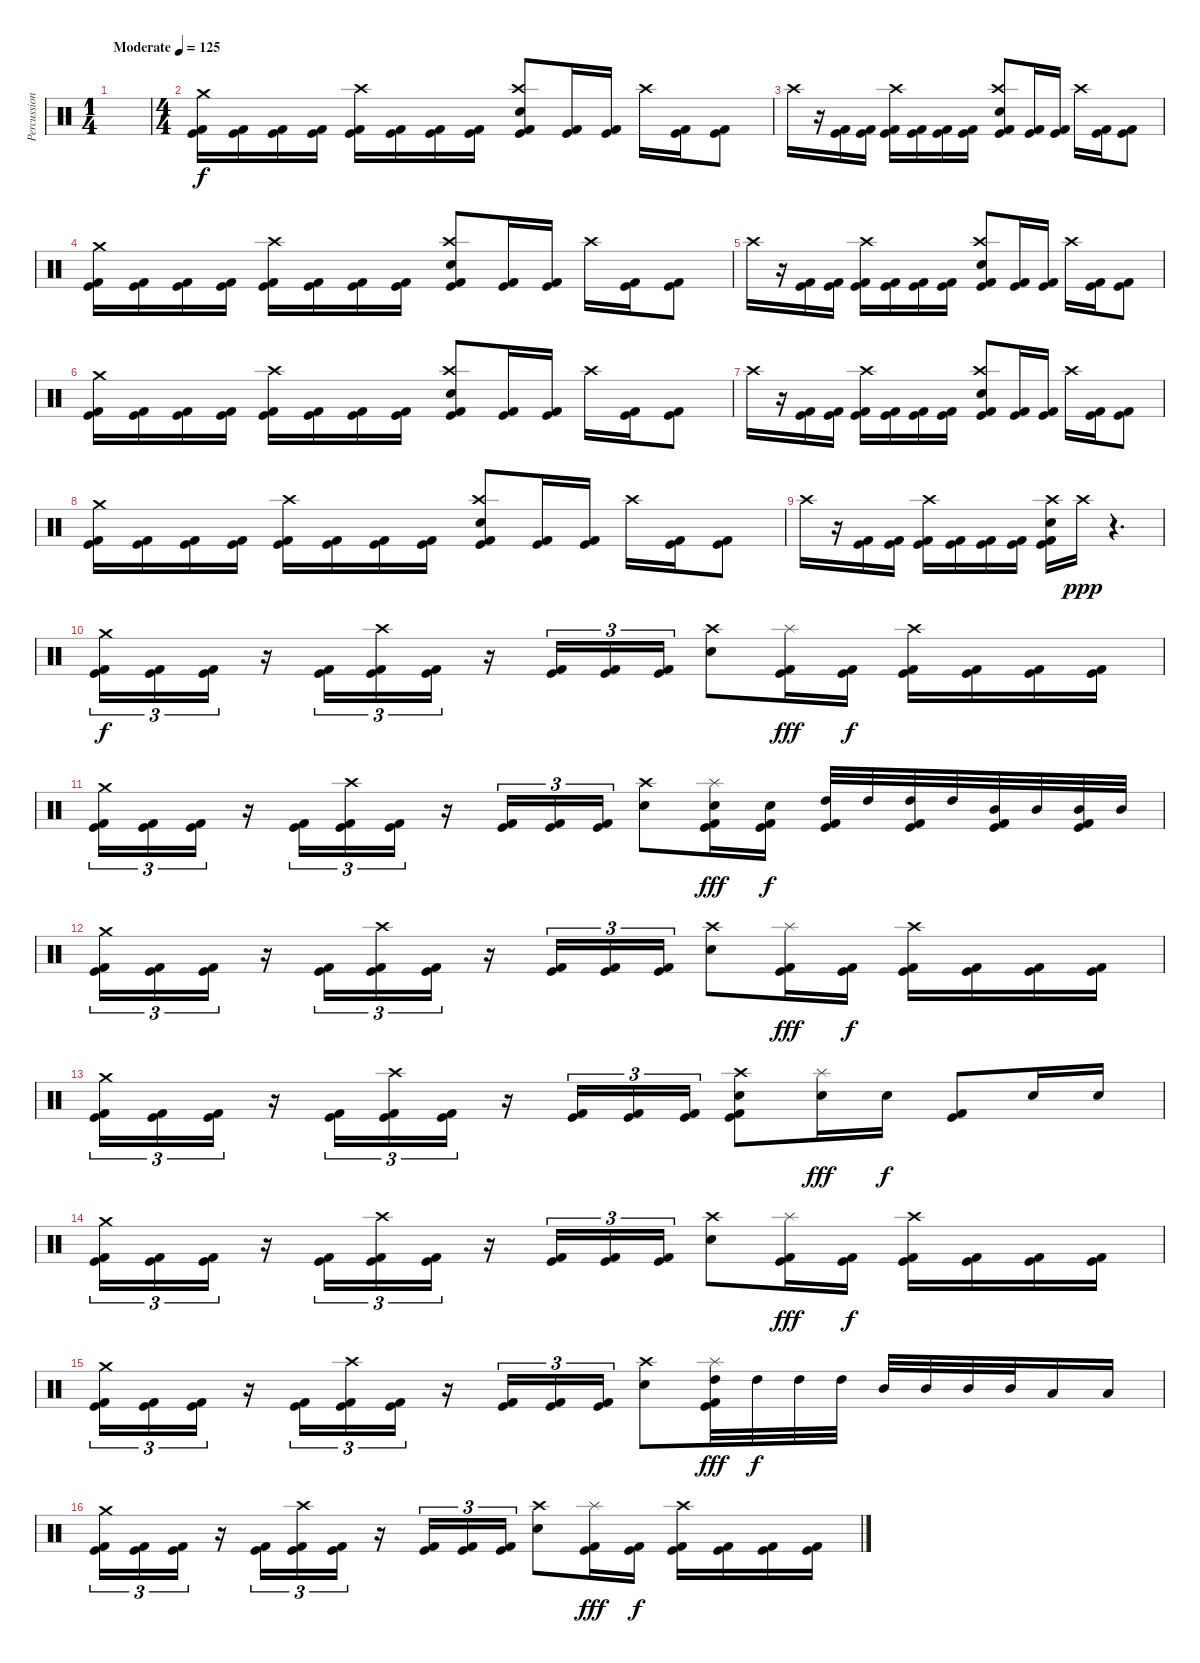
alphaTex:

\track ("Percussion" "Percussion") {instrument percussion}
\staff {score}
\articulation defaults
\ts (1 4)
\tempo (125 "Moderate")
\clef neutral
\ks c
|
\ts (4 4)
("Crash medium (hit)" "Kick (hit)" "Kick (hit) 2").16 ("Kick (hit)" "Kick (hit) 2").16 ("Kick (hit)" "Kick (hit) 2").16 ("Kick (hit)" "Kick (hit) 2").16 ("Crash high (hit)" "Kick (hit)" "Kick (hit) 2").16 ("Kick (hit)" "Kick (hit) 2").16 ("Kick (hit)" "Kick (hit) 2").16 ("Kick (hit)" "Kick (hit) 2").16 ("Crash high (hit)" "Snare (hit) 2" "Kick (hit)" "Kick (hit) 2").8 ("Kick (hit)" "Kick (hit) 2").16 ("Kick (hit)" "Kick (hit) 2").16 "Crash high (hit)".16 ("Kick (hit)" "Kick (hit) 2").16 ("Kick (hit)" "Kick (hit) 2").8 |
"Crash high (hit)".16 r.16 ("Kick (hit)" "Kick (hit) 2").16 ("Kick (hit)" "Kick (hit) 2").16 ("Crash high (hit)" "Kick (hit)" "Kick (hit) 2").16 ("Kick (hit)" "Kick (hit) 2").16 ("Kick (hit)" "Kick (hit) 2").16 ("Kick (hit)" "Kick (hit) 2").16 ("Crash high (hit)" "Snare (hit) 2" "Kick (hit)" "Kick (hit) 2").8 ("Kick (hit)" "Kick (hit) 2").16 ("Kick (hit)" "Kick (hit) 2").16 "Crash high (hit)".16 ("Kick (hit)" "Kick (hit) 2").16 ("Kick (hit)" "Kick (hit) 2").8 |
("Crash medium (hit)" "Kick (hit)" "Kick (hit) 2").16 ("Kick (hit)" "Kick (hit) 2").16 ("Kick (hit)" "Kick (hit) 2").16 ("Kick (hit)" "Kick (hit) 2").16 ("Crash high (hit)" "Kick (hit)" "Kick (hit) 2").16 ("Kick (hit)" "Kick (hit) 2").16 ("Kick (hit)" "Kick (hit) 2").16 ("Kick (hit)" "Kick (hit) 2").16 ("Crash high (hit)" "Snare (hit) 2" "Kick (hit)" "Kick (hit) 2").8 ("Kick (hit)" "Kick (hit) 2").16 ("Kick (hit)" "Kick (hit) 2").16 "Crash high (hit)".16 ("Kick (hit)" "Kick (hit) 2").16 ("Kick (hit)" "Kick (hit) 2").8 |
"Crash high (hit)".16 r.16 ("Kick (hit)" "Kick (hit) 2").16 ("Kick (hit)" "Kick (hit) 2").16 ("Crash high (hit)" "Kick (hit)" "Kick (hit) 2").16 ("Kick (hit)" "Kick (hit) 2").16 ("Kick (hit)" "Kick (hit) 2").16 ("Kick (hit)" "Kick (hit) 2").16 ("Crash high (hit)" "Snare (hit) 2" "Kick (hit)" "Kick (hit) 2").8 ("Kick (hit)" "Kick (hit) 2").16 ("Kick (hit)" "Kick (hit) 2").16 "Crash high (hit)".16 ("Kick (hit)" "Kick (hit) 2").16 ("Kick (hit)" "Kick (hit) 2").8 |
("Crash medium (hit)" "Kick (hit)" "Kick (hit) 2").16 ("Kick (hit)" "Kick (hit) 2").16 ("Kick (hit)" "Kick (hit) 2").16 ("Kick (hit)" "Kick (hit) 2").16 ("Crash high (hit)" "Kick (hit)" "Kick (hit) 2").16 ("Kick (hit)" "Kick (hit) 2").16 ("Kick (hit)" "Kick (hit) 2").16 ("Kick (hit)" "Kick (hit) 2").16 ("Crash high (hit)" "Snare (hit) 2" "Kick (hit)" "Kick (hit) 2").8 ("Kick (hit)" "Kick (hit) 2").16 ("Kick (hit)" "Kick (hit) 2").16 "Crash high (hit)".16 ("Kick (hit)" "Kick (hit) 2").16 ("Kick (hit)" "Kick (hit) 2").8 |
"Crash high (hit)".16 r.16 ("Kick (hit)" "Kick (hit) 2").16 ("Kick (hit)" "Kick (hit) 2").16 ("Crash high (hit)" "Kick (hit)" "Kick (hit) 2").16 ("Kick (hit)" "Kick (hit) 2").16 ("Kick (hit)" "Kick (hit) 2").16 ("Kick (hit)" "Kick (hit) 2").16 ("Crash high (hit)" "Snare (hit) 2" "Kick (hit)" "Kick (hit) 2").8 ("Kick (hit)" "Kick (hit) 2").16 ("Kick (hit)" "Kick (hit) 2").16 "Crash high (hit)".16 ("Kick (hit)" "Kick (hit) 2").16 ("Kick (hit)" "Kick (hit) 2").8 |
("Crash medium (hit)" "Kick (hit)" "Kick (hit) 2").16 ("Kick (hit)" "Kick (hit) 2").16 ("Kick (hit)" "Kick (hit) 2").16 ("Kick (hit)" "Kick (hit) 2").16 ("Crash high (hit)" "Kick (hit)" "Kick (hit) 2").16 ("Kick (hit)" "Kick (hit) 2").16 ("Kick (hit)" "Kick (hit) 2").16 ("Kick (hit)" "Kick (hit) 2").16 ("Crash high (hit)" "Snare (hit) 2" "Kick (hit)" "Kick (hit) 2").8 ("Kick (hit)" "Kick (hit) 2").16 ("Kick (hit)" "Kick (hit) 2").16 "Crash high (hit)".16 ("Kick (hit)" "Kick (hit) 2").16 ("Kick (hit)" "Kick (hit) 2").8 |
"Crash high (hit)".16 r.16 ("Kick (hit)" "Kick (hit) 2").16 ("Kick (hit)" "Kick (hit) 2").16 ("Crash high (hit)" "Kick (hit)" "Kick (hit) 2").16 ("Kick (hit)" "Kick (hit) 2").16 ("Kick (hit)" "Kick (hit) 2").16 ("Kick (hit)" "Kick (hit) 2").16 ("Crash high (hit)" "Snare (hit) 2" "Kick (hit)" "Kick (hit) 2").16 "Crash high (hit)".16{dy ppp} r.4{d} |
("Crash medium (hit)" "Kick (hit)" "Kick (hit) 2").16{tu (3 2) dy f volume 16} ("Kick (hit)" "Kick (hit) 2").16{tu (3 2)} ("Kick (hit)" "Kick (hit) 2").16{tu (3 2)} r.16 ("Kick (hit)" "Kick (hit) 2").16{tu (3 2)} ("Crash high (hit)" "Kick (hit)" "Kick (hit) 2").16{tu (3 2)} ("Kick (hit)" "Kick (hit) 2").16{tu (3 2)} r.16 ("Kick (hit)" "Kick (hit) 2").16{tu (3 2)} ("Kick (hit)" "Kick (hit) 2").16{tu (3 2)} ("Kick (hit)" "Kick (hit) 2").16{tu (3 2)} ("Crash high (hit)" "Snare (hit) 2").8 ("Splash (hit)" "Kick (hit)" "Kick (hit) 2").16{dy fff} ("Kick (hit)" "Kick (hit) 2").16{dy f} ("Crash high (hit)" "Kick (hit)" "Kick (hit) 2").16 ("Kick (hit)" "Kick (hit) 2").16 ("Kick (hit)" "Kick (hit) 2").16 ("Kick (hit)" "Kick (hit) 2").16 |
("Crash medium (hit)" "Kick (hit)" "Kick (hit) 2").16{tu (3 2)} ("Kick (hit)" "Kick (hit) 2").16{tu (3 2)} ("Kick (hit)" "Kick (hit) 2").16{tu (3 2)} r.16 ("Kick (hit)" "Kick (hit) 2").16{tu (3 2)} ("Crash high (hit)" "Kick (hit)" "Kick (hit) 2").16{tu (3 2)} ("Kick (hit)" "Kick (hit) 2").16{tu (3 2)} r.16 ("Kick (hit)" "Kick (hit) 2").16{tu (3 2)} ("Kick (hit)" "Kick (hit) 2").16{tu (3 2)} ("Kick (hit)" "Kick (hit) 2").16{tu (3 2)} ("Crash high (hit)" "Snare (hit) 2").8 ("Splash (hit)" "Snare (hit) 2" "Kick (hit)" "Kick (hit) 2").16{dy fff} ("Snare (hit) 2" "Kick (hit)" "Kick (hit) 2").16{dy f} ("High Tom (hit)" "Kick (hit)" "Kick (hit) 2").32 "High Tom (hit)".32 ("High Tom (hit)" "Kick (hit)" "Kick (hit) 2").32 "High Tom (hit)".32 ("Mid Tom (hit)" "Kick (hit)" "Kick (hit) 2").32 "Mid Tom (hit)".32 ("Mid Tom (hit)" "Kick (hit)" "Kick (hit) 2").32 "Mid Tom (hit)".32 |
("Crash medium (hit)" "Kick (hit)" "Kick (hit) 2").16{tu (3 2)} ("Kick (hit)" "Kick (hit) 2").16{tu (3 2)} ("Kick (hit)" "Kick (hit) 2").16{tu (3 2)} r.16 ("Kick (hit)" "Kick (hit) 2").16{tu (3 2)} ("Crash high (hit)" "Kick (hit)" "Kick (hit) 2").16{tu (3 2)} ("Kick (hit)" "Kick (hit) 2").16{tu (3 2)} r.16 ("Kick (hit)" "Kick (hit) 2").16{tu (3 2)} ("Kick (hit)" "Kick (hit) 2").16{tu (3 2)} ("Kick (hit)" "Kick (hit) 2").16{tu (3 2)} ("Crash high (hit)" "Snare (hit) 2").8 ("Splash (hit)" "Kick (hit)" "Kick (hit) 2").16{dy fff} ("Kick (hit)" "Kick (hit) 2").16{dy f} ("Crash high (hit)" "Kick (hit)" "Kick (hit) 2").16 ("Kick (hit)" "Kick (hit) 2").16 ("Kick (hit)" "Kick (hit) 2").16 ("Kick (hit)" "Kick (hit) 2").16 |
("Crash medium (hit)" "Kick (hit)" "Kick (hit) 2").16{tu (3 2)} ("Kick (hit)" "Kick (hit) 2").16{tu (3 2)} ("Kick (hit)" "Kick (hit) 2").16{tu (3 2)} r.16 ("Kick (hit)" "Kick (hit) 2").16{tu (3 2)} ("Crash high (hit)" "Kick (hit)" "Kick (hit) 2").16{tu (3 2)} ("Kick (hit)" "Kick (hit) 2").16{tu (3 2)} r.16 ("Kick (hit)" "Kick (hit) 2").16{tu (3 2)} ("Kick (hit)" "Kick (hit) 2").16{tu (3 2)} ("Kick (hit)" "Kick (hit) 2").16{tu (3 2)} ("Crash high (hit)" "Snare (hit) 2" "Kick (hit)" "Kick (hit) 2").8 ("Splash (hit)" "Snare (hit) 2").16{dy fff} "Snare (hit) 2".16{dy f} ("Kick (hit)" "Kick (hit) 2").8 "Snare (hit) 2".16 "Snare (hit) 2".16 |
("Crash medium (hit)" "Kick (hit)" "Kick (hit) 2").16{tu (3 2)} ("Kick (hit)" "Kick (hit) 2").16{tu (3 2)} ("Kick (hit)" "Kick (hit) 2").16{tu (3 2)} r.16 ("Kick (hit)" "Kick (hit) 2").16{tu (3 2)} ("Crash high (hit)" "Kick (hit)" "Kick (hit) 2").16{tu (3 2)} ("Kick (hit)" "Kick (hit) 2").16{tu (3 2)} r.16 ("Kick (hit)" "Kick (hit) 2").16{tu (3 2)} ("Kick (hit)" "Kick (hit) 2").16{tu (3 2)} ("Kick (hit)" "Kick (hit) 2").16{tu (3 2)} ("Crash high (hit)" "Snare (hit) 2").8 ("Splash (hit)" "Kick (hit)" "Kick (hit) 2").16{dy fff} ("Kick (hit)" "Kick (hit) 2").16{dy f} ("Crash high (hit)" "Kick (hit)" "Kick (hit) 2").16 ("Kick (hit)" "Kick (hit) 2").16 ("Kick (hit)" "Kick (hit) 2").16 ("Kick (hit)" "Kick (hit) 2").16 |
("Crash medium (hit)" "Kick (hit)" "Kick (hit) 2").16{tu (3 2)} ("Kick (hit)" "Kick (hit) 2").16{tu (3 2)} ("Kick (hit)" "Kick (hit) 2").16{tu (3 2)} r.16 ("Kick (hit)" "Kick (hit) 2").16{tu (3 2)} ("Crash high (hit)" "Kick (hit)" "Kick (hit) 2").16{tu (3 2)} ("Kick (hit)" "Kick (hit) 2").16{tu (3 2)} r.16 ("Kick (hit)" "Kick (hit) 2").16{tu (3 2)} ("Kick (hit)" "Kick (hit) 2").16{tu (3 2)} ("Kick (hit)" "Kick (hit) 2").16{tu (3 2)} ("Crash high (hit)" "Snare (hit) 2").8 ("Splash (hit)" "High Tom (hit)" "Kick (hit)" "Kick (hit) 2").32{dy fff} "High Tom (hit)".32{dy f} "High Tom (hit)".32 "High Tom (hit)".32 "Mid Tom (hit)".32 "Mid Tom (hit)".32 "Mid Tom (hit)".32 "Mid Tom (hit)".32 "Low Tom (hit)".16 "Low Tom (hit)".16 |
("Crash medium (hit)" "Kick (hit)" "Kick (hit) 2").16{tu (3 2)} ("Kick (hit)" "Kick (hit) 2").16{tu (3 2)} ("Kick (hit)" "Kick (hit) 2").16{tu (3 2)} r.16 ("Kick (hit)" "Kick (hit) 2").16{tu (3 2)} ("Crash high (hit)" "Kick (hit)" "Kick (hit) 2").16{tu (3 2)} ("Kick (hit)" "Kick (hit) 2").16{tu (3 2)} r.16 ("Kick (hit)" "Kick (hit) 2").16{tu (3 2)} ("Kick (hit)" "Kick (hit) 2").16{tu (3 2)} ("Kick (hit)" "Kick (hit) 2").16{tu (3 2)} ("Crash high (hit)" "Snare (hit) 2").8 ("Splash (hit)" "Kick (hit)" "Kick (hit) 2").16{dy fff} ("Kick (hit)" "Kick (hit) 2").16{dy f} ("Crash high (hit)" "Kick (hit)" "Kick (hit) 2").16 ("Kick (hit)" "Kick (hit) 2").16 ("Kick (hit)" "Kick (hit) 2").16 ("Kick (hit)" "Kick (hit) 2").16
